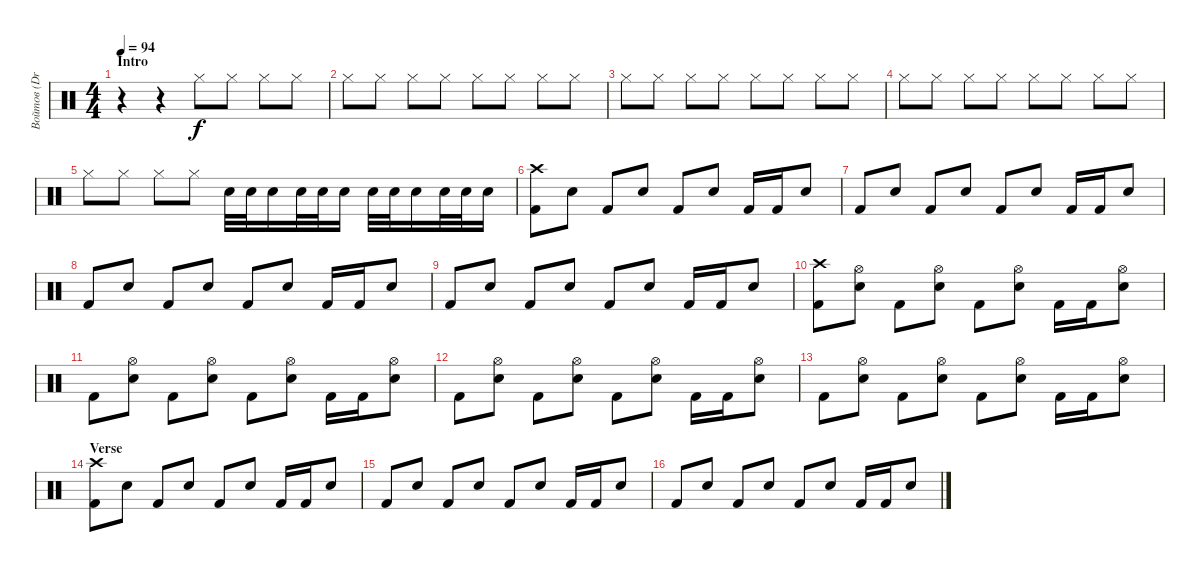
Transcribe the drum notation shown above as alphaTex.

\track ("Войтов (Drums)" "Войтов (Dr") {instrument percussion}
\staff {score}
\articulation defaults
\ts (4 4)
\section ("" "Intro")
\tempo 94
\clef neutral
\ks c
r.4{dy f} r.4 "Hi-Hat (closed)".8 "Hi-Hat (closed)".8 "Hi-Hat (closed)".8 "Hi-Hat (closed)".8 |
"Hi-Hat (closed)".8 "Hi-Hat (closed)".8 "Hi-Hat (closed)".8 "Hi-Hat (closed)".8 "Hi-Hat (closed)".8 "Hi-Hat (closed)".8 "Hi-Hat (closed)".8 "Hi-Hat (closed)".8 |
"Hi-Hat (closed)".8 "Hi-Hat (closed)".8 "Hi-Hat (closed)".8 "Hi-Hat (closed)".8 "Hi-Hat (closed)".8 "Hi-Hat (closed)".8 "Hi-Hat (closed)".8 "Hi-Hat (closed)".8 |
"Hi-Hat (closed)".8 "Hi-Hat (closed)".8 "Hi-Hat (closed)".8 "Hi-Hat (closed)".8 "Hi-Hat (closed)".8 "Hi-Hat (closed)".8 "Hi-Hat (closed)".8 "Hi-Hat (closed)".8 |
"Hi-Hat (closed)".8 "Hi-Hat (closed)".8 "Hi-Hat (closed)".8 "Hi-Hat (closed)".8 "Electric Snare (hit)".32 "Electric Snare (hit)".32 "Electric Snare (hit)".16 "Electric Snare (hit)".32 "Electric Snare (hit)".32 "Electric Snare (hit)".16 "Electric Snare (hit)".32 "Electric Snare (hit)".32 "Electric Snare (hit)".16 "Electric Snare (hit)".32 "Electric Snare (hit)".32 "Electric Snare (hit)".16 |
("Kick (hit) 2" "Crash high (hit)").8 "Electric Snare (hit)".8 "Kick (hit) 2".8 "Electric Snare (hit)".8 "Kick (hit) 2".8 "Electric Snare (hit)".8 "Kick (hit) 2".16 "Kick (hit) 2".16 "Electric Snare (hit)".8 |
"Kick (hit) 2".8 "Electric Snare (hit)".8 "Kick (hit) 2".8 "Electric Snare (hit)".8 "Kick (hit) 2".8 "Electric Snare (hit)".8 "Kick (hit) 2".16 "Kick (hit) 2".16 "Electric Snare (hit)".8 |
"Kick (hit) 2".8 "Electric Snare (hit)".8 "Kick (hit) 2".8 "Electric Snare (hit)".8 "Kick (hit) 2".8 "Electric Snare (hit)".8 "Kick (hit) 2".16 "Kick (hit) 2".16 "Electric Snare (hit)".8 |
"Kick (hit) 2".8 "Electric Snare (hit)".8 "Kick (hit) 2".8 "Electric Snare (hit)".8 "Kick (hit) 2".8 "Electric Snare (hit)".8 "Kick (hit) 2".16 "Kick (hit) 2".16 "Electric Snare (hit)".8 |
("Kick (hit) 2" "Crash high (hit)").8 ("Electric Snare (hit)" "Hi-Hat (open)").8 "Kick (hit) 2".8 ("Electric Snare (hit)" "Hi-Hat (open)").8 "Kick (hit) 2".8 ("Electric Snare (hit)" "Hi-Hat (open)").8 "Kick (hit) 2".16 "Kick (hit) 2".16 ("Electric Snare (hit)" "Hi-Hat (open)").8 |
"Kick (hit) 2".8 ("Electric Snare (hit)" "Hi-Hat (open)").8 "Kick (hit) 2".8 ("Electric Snare (hit)" "Hi-Hat (open)").8 "Kick (hit) 2".8 ("Electric Snare (hit)" "Hi-Hat (open)").8 "Kick (hit) 2".16 "Kick (hit) 2".16 ("Electric Snare (hit)" "Hi-Hat (open)").8 |
"Kick (hit) 2".8 ("Electric Snare (hit)" "Hi-Hat (open)").8 "Kick (hit) 2".8 ("Electric Snare (hit)" "Hi-Hat (open)").8 "Kick (hit) 2".8 ("Electric Snare (hit)" "Hi-Hat (open)").8 "Kick (hit) 2".16 "Kick (hit) 2".16 ("Electric Snare (hit)" "Hi-Hat (open)").8 |
"Kick (hit) 2".8 ("Electric Snare (hit)" "Hi-Hat (open)").8 "Kick (hit) 2".8 ("Electric Snare (hit)" "Hi-Hat (open)").8 "Kick (hit) 2".8 ("Electric Snare (hit)" "Hi-Hat (open)").8 "Kick (hit) 2".16 "Kick (hit) 2".16 ("Electric Snare (hit)" "Hi-Hat (open)").8 |
\section ("" "Verse")
("Kick (hit) 2" "Crash high (hit)").8 "Electric Snare (hit)".8 "Kick (hit) 2".8 "Electric Snare (hit)".8 "Kick (hit) 2".8 "Electric Snare (hit)".8 "Kick (hit) 2".16 "Kick (hit) 2".16 "Electric Snare (hit)".8 |
"Kick (hit) 2".8 "Electric Snare (hit)".8 "Kick (hit) 2".8 "Electric Snare (hit)".8 "Kick (hit) 2".8 "Electric Snare (hit)".8 "Kick (hit) 2".16 "Kick (hit) 2".16 "Electric Snare (hit)".8 |
"Kick (hit) 2".8 "Electric Snare (hit)".8 "Kick (hit) 2".8 "Electric Snare (hit)".8 "Kick (hit) 2".8 "Electric Snare (hit)".8 "Kick (hit) 2".16 "Kick (hit) 2".16 "Electric Snare (hit)".8
